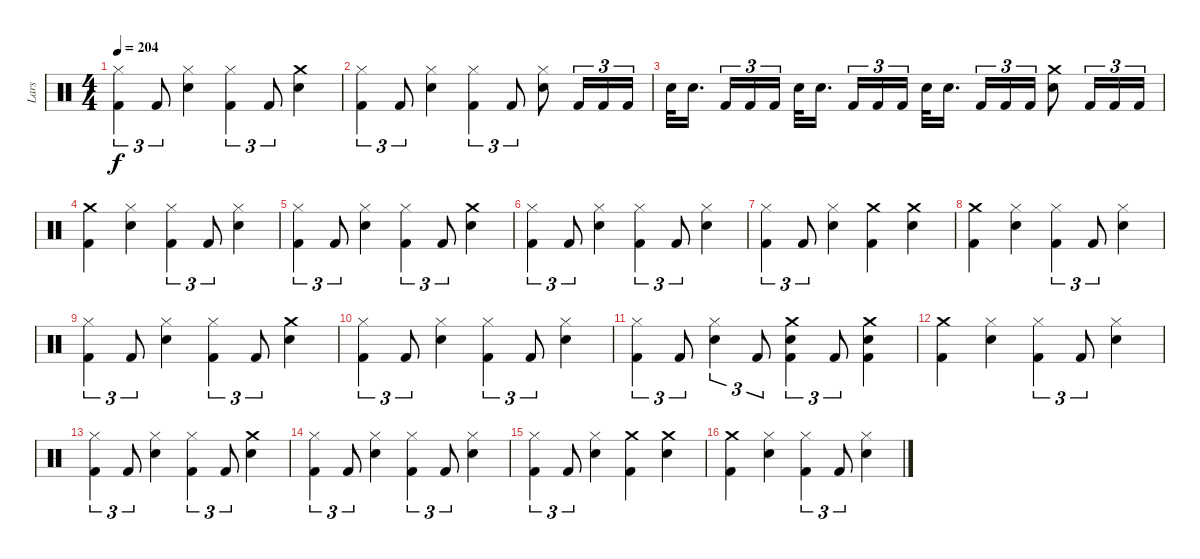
\track ("Lars" "Lars") {instrument percussion}
\staff {score}
\articulation defaults
\ts (4 4)
\tempo 204
\clef neutral
\ks c
("Hi-Hat (closed)" "Kick (hit) 2").4{tu (3 2) dy f} "Kick (hit) 2".8{tu (3 2)} ("Snare (hit) 2" "Hi-Hat (closed)").4 ("Hi-Hat (closed)" "Kick (hit) 2").4{tu (3 2)} "Kick (hit) 2".8{tu (3 2)} ("Crash medium (hit)" "Snare (hit) 2").4 |
("Hi-Hat (closed)" "Kick (hit) 2").4{tu (3 2)} "Kick (hit) 2".8{tu (3 2)} ("Snare (hit) 2" "Hi-Hat (closed)").4 ("Hi-Hat (closed)" "Kick (hit) 2").4{tu (3 2)} "Kick (hit) 2".8{tu (3 2)} ("Snare (hit) 2" "Hi-Hat (closed)").8 "Kick (hit) 2".16{tu (3 2)} "Kick (hit) 2".16{tu (3 2)} "Kick (hit) 2".16{tu (3 2)} |
"Snare (hit) 2".32 "Snare (hit) 2".16{d beam splitsecondary} "Kick (hit) 2".16{tu (3 2)} "Kick (hit) 2".16{tu (3 2)} "Kick (hit) 2".16{tu (3 2)} "Snare (hit) 2".32 "Snare (hit) 2".16{d beam splitsecondary} "Kick (hit) 2".16{tu (3 2)} "Kick (hit) 2".16{tu (3 2)} "Kick (hit) 2".16{tu (3 2)} "Snare (hit) 2".32 "Snare (hit) 2".16{d beam splitsecondary} "Kick (hit) 2".16{tu (3 2)} "Kick (hit) 2".16{tu (3 2)} "Kick (hit) 2".16{tu (3 2)} ("Crash medium (hit)" "Snare (hit) 2").8 "Kick (hit) 2".16{tu (3 2)} "Kick (hit) 2".16{tu (3 2)} "Kick (hit) 2".16{tu (3 2)} |
("Kick (hit) 2" "Crash medium (hit)").4 ("Hi-Hat (closed)" "Snare (hit) 2").4 ("Hi-Hat (closed)" "Kick (hit) 2").4{tu (3 2)} "Kick (hit) 2".8{tu (3 2)} ("Snare (hit) 2" "Hi-Hat (closed)").4 |
("Hi-Hat (closed)" "Kick (hit) 2").4{tu (3 2)} "Kick (hit) 2".8{tu (3 2)} ("Snare (hit) 2" "Hi-Hat (closed)").4 ("Hi-Hat (closed)" "Kick (hit) 2").4{tu (3 2)} "Kick (hit) 2".8{tu (3 2)} ("Crash medium (hit)" "Snare (hit) 2").4 |
("Hi-Hat (closed)" "Kick (hit) 2").4{tu (3 2)} "Kick (hit) 2".8{tu (3 2)} ("Snare (hit) 2" "Hi-Hat (closed)").4 ("Hi-Hat (closed)" "Kick (hit) 2").4{tu (3 2)} "Kick (hit) 2".8{tu (3 2)} ("Snare (hit) 2" "Hi-Hat (closed)").4 |
("Hi-Hat (closed)" "Kick (hit) 2").4{tu (3 2)} "Kick (hit) 2".8{tu (3 2)} ("Snare (hit) 2" "Hi-Hat (closed)").4 ("Crash medium (hit)" "Kick (hit) 2").4 ("Crash medium (hit)" "Snare (hit) 2").4 |
("Kick (hit) 2" "Crash medium (hit)").4 ("Hi-Hat (closed)" "Snare (hit) 2").4 ("Hi-Hat (closed)" "Kick (hit) 2").4{tu (3 2)} "Kick (hit) 2".8{tu (3 2)} ("Snare (hit) 2" "Hi-Hat (closed)").4 |
("Hi-Hat (closed)" "Kick (hit) 2").4{tu (3 2)} "Kick (hit) 2".8{tu (3 2)} ("Snare (hit) 2" "Hi-Hat (closed)").4 ("Hi-Hat (closed)" "Kick (hit) 2").4{tu (3 2)} "Kick (hit) 2".8{tu (3 2)} ("Crash medium (hit)" "Snare (hit) 2").4 |
("Hi-Hat (closed)" "Kick (hit) 2").4{tu (3 2)} "Kick (hit) 2".8{tu (3 2)} ("Snare (hit) 2" "Hi-Hat (closed)").4 ("Hi-Hat (closed)" "Kick (hit) 2").4{tu (3 2)} "Kick (hit) 2".8{tu (3 2)} ("Snare (hit) 2" "Hi-Hat (closed)").4 |
("Hi-Hat (closed)" "Kick (hit) 2").4{tu (3 2)} "Kick (hit) 2".8{tu (3 2)} ("Snare (hit) 2" "Hi-Hat (closed)").4{tu (3 2)} "Kick (hit) 2".8{tu (3 2)} ("Snare (hit) 2" "Crash medium (hit)" "Kick (hit) 2").4{tu (3 2)} "Kick (hit) 2".8{tu (3 2)} ("Kick (hit) 2" "Crash medium (hit)" "Snare (hit) 2").4 |
("Kick (hit) 2" "Crash medium (hit)").4 ("Hi-Hat (closed)" "Snare (hit) 2").4 ("Hi-Hat (closed)" "Kick (hit) 2").4{tu (3 2)} "Kick (hit) 2".8{tu (3 2)} ("Snare (hit) 2" "Hi-Hat (closed)").4 |
("Hi-Hat (closed)" "Kick (hit) 2").4{tu (3 2)} "Kick (hit) 2".8{tu (3 2)} ("Snare (hit) 2" "Hi-Hat (closed)").4 ("Hi-Hat (closed)" "Kick (hit) 2").4{tu (3 2)} "Kick (hit) 2".8{tu (3 2)} ("Crash medium (hit)" "Snare (hit) 2").4 |
("Hi-Hat (closed)" "Kick (hit) 2").4{tu (3 2)} "Kick (hit) 2".8{tu (3 2)} ("Snare (hit) 2" "Hi-Hat (closed)").4 ("Hi-Hat (closed)" "Kick (hit) 2").4{tu (3 2)} "Kick (hit) 2".8{tu (3 2)} ("Snare (hit) 2" "Hi-Hat (closed)").4 |
("Hi-Hat (closed)" "Kick (hit) 2").4{tu (3 2)} "Kick (hit) 2".8{tu (3 2)} ("Snare (hit) 2" "Hi-Hat (closed)").4 ("Crash medium (hit)" "Kick (hit) 2").4 ("Crash medium (hit)" "Snare (hit) 2").4 |
("Kick (hit) 2" "Crash medium (hit)").4 ("Hi-Hat (closed)" "Snare (hit) 2").4 ("Hi-Hat (closed)" "Kick (hit) 2").4{tu (3 2)} "Kick (hit) 2".8{tu (3 2)} ("Snare (hit) 2" "Hi-Hat (closed)").4
